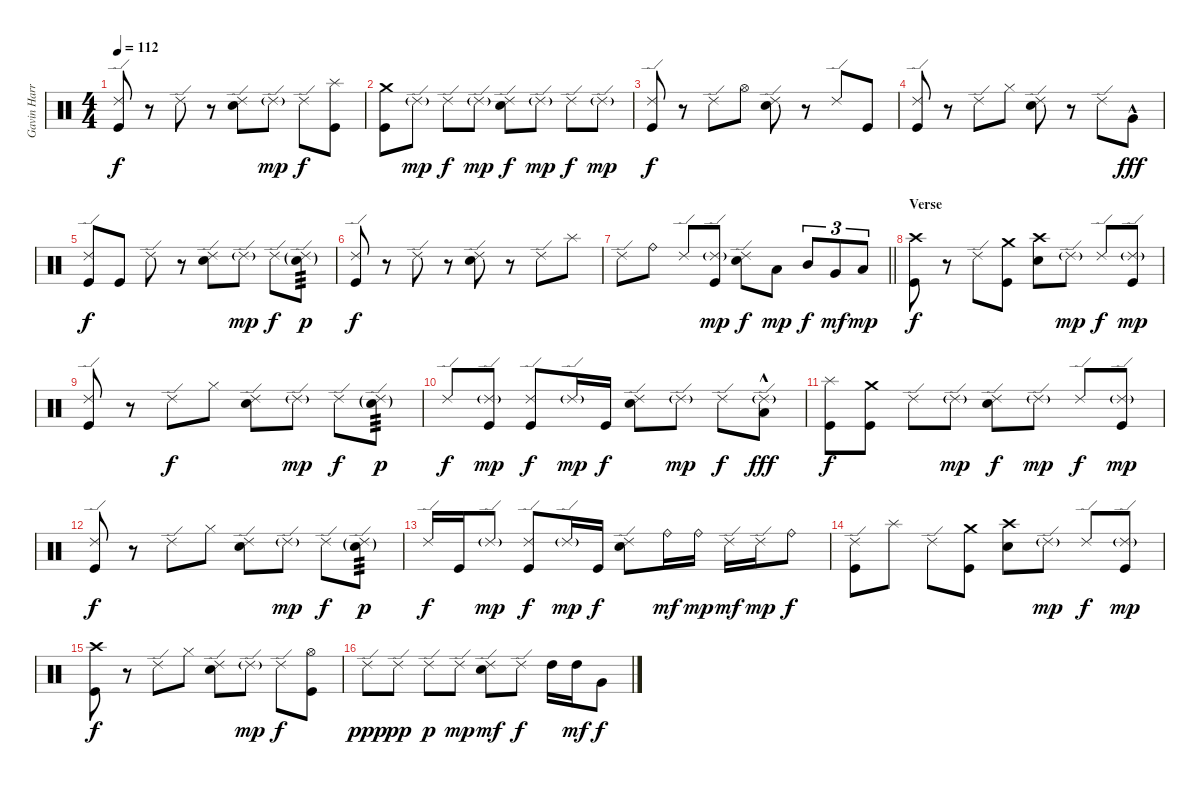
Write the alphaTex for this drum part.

\track ("Gavin Harrison - Drums" "Gavin Harr") {instrument percussion}
\staff {score}
\articulation defaults
\ts (4 4)
\tempo 112
\clef neutral
\ks c
("Ride (edge) 2" "Kick (hit)").8{dy f} r.8 "Ride (edge) 2".8 r.8 ("Ride (edge) 2" "Snare (hit) 2").8 "Ride (edge) 2"{g}.8{dy mp} "Ride (edge) 2".8{dy f} ("Splash (hit)" "Kick (hit)").8 |
("Crash medium (hit)" "Kick (hit)").8 "Ride (edge) 2"{g}.8{dy mp} "Ride (edge) 2".8{dy f} "Ride (edge) 2"{g}.8{dy mp} ("Ride (edge) 2" "Snare (hit) 2").8{dy f} "Ride (edge) 2"{g}.8{dy mp} "Ride (edge) 2".8{dy f} "Ride (edge) 2"{g}.8{dy mp} |
("Ride (edge) 2" "Kick (hit)").8{dy f} r.8 "Ride (edge) 2".8 "Hi-Hat (open)".8 ("Ride (edge) 2" "Snare (hit) 2").8 r.8 "Ride (edge) 2".8 "Kick (hit)".8 |
("Ride (edge) 2" "Kick (hit)").8 r.8 "Ride (edge) 2".8 "Hi-Hat (closed)".8 ("Ride (edge) 2" "Snare (hit) 2").8 r.8 "Ride (edge) 2".8 "Very Low Tom (hit)"{hac}.8{dy fff} |
("Ride (edge) 2" "Kick (hit)").8{dy f} "Kick (hit)".8 "Ride (edge) 2".8 r.8 ("Ride (edge) 2" "Snare (hit) 2").8 "Ride (edge) 2"{g}.8{dy mp} "Ride (edge) 2".8{dy f} ("Ride (edge) 2"{g} "Snare (hit) 2"{g}).8{tp 3 dy p} |
("Ride (edge) 2" "Kick (hit)").8{dy f} r.8 "Ride (edge) 2".8 r.8 ("Ride (edge) 2" "Snare (hit) 2").8 r.8 "Ride (edge) 2".8 "Splash (hit)".8 |
\barLineRight lightlight "Ride (edge) 2".8 "Ride (bell)".8 "Ride (edge) 2".8
("Ride (edge) 2"{g} "Kick (hit)").8{dy mp} ("Ride (edge) 2" "Snare (hit) 2").8{dy f} "Low Tom (hit)".8{dy mp} "Mid Tom (hit)".8{tu (3 2) dy f} "Very Low Tom (hit)".8{tu (3 2) dy mf} "Low Floor Tom (hit)".8{tu (3 2) dy mp} |
\section ("" "Verse")
("Crash high (hit)" "Kick (hit)").8{dy f} r.8 "Ride (edge) 2".8 ("Crash medium (hit)" "Kick (hit)").8 ("Crash high (hit)" "Snare (hit) 2").8 "Ride (edge) 2"{g}.8{dy mp} "Ride (edge) 2".8{dy f} ("Ride (edge) 2"{g} "Kick (hit)").8{dy mp} |
("Ride (edge) 2" "Kick (hit)").8 r.8 "Ride (edge) 2".8{dy f} "Hi-Hat (closed)".8 ("Ride (edge) 2" "Snare (hit) 2").8 "Ride (edge) 2"{g}.8{dy mp} "Ride (edge) 2".8{dy f} ("Ride (edge) 2"{g} "Snare (hit) 2"{g}).8{tp 3 dy p} |
"Ride (edge) 2".8{dy f} ("Ride (edge) 2"{g} "Kick (hit)").8{dy mp} ("Ride (edge) 2" "Kick (hit)").8{dy f} "Ride (edge) 2"{g}.16{dy mp} "Kick (hit)".16{dy f} ("Ride (edge) 2" "Snare (hit) 2").8 "Ride (edge) 2"{g}.8{dy mp} "Ride (edge) 2".8{dy f} ("Ride (edge) 2"{g} "Low Floor Tom (hit)"{hac}).8{dy fff} |
("Splash (hit)" "Kick (hit)").8{dy f} ("Crash medium (hit)" "Kick (hit)").8 "Ride (edge) 2".8 "Ride (edge) 2"{g}.8{dy mp} ("Ride (edge) 2" "Snare (hit) 2").8{dy f} "Ride (edge) 2"{g}.8{dy mp} "Ride (edge) 2".8{dy f} ("Ride (edge) 2"{g} "Kick (hit)").8{dy mp} |
("Ride (edge) 2" "Kick (hit)").8{dy f} r.8 "Ride (edge) 2".8 "Hi-Hat (closed)".8 ("Ride (edge) 2" "Snare (hit) 2").8 "Ride (edge) 2"{g}.8{dy mp} "Ride (edge) 2".8{dy f} ("Ride (edge) 2"{g} "Snare (hit) 2"{g}).8{tp 3 dy p} |
"Ride (edge) 2".16{dy f} "Kick (hit)".16 "Ride (edge) 2"{g}.8{dy mp} ("Ride (edge) 2" "Kick (hit)").8{dy f} "Ride (edge) 2"{g}.16{dy mp} "Kick (hit)".16{dy f} ("Ride (edge) 2" "Snare (hit) 2").8 "Ride (bell)".16{dy mf} "Ride (bell)".16{dy mp} "Ride (edge) 2".16{dy mf} "Ride (edge) 2".16{dy mp} "Ride (bell)".8{dy f} |
("Ride (edge) 2" "Kick (hit)").8 "Splash (hit)".8 "Ride (edge) 2".8 ("Crash medium (hit)" "Kick (hit)").8 ("Crash high (hit)" "Snare (hit) 2").8 "Ride (edge) 2"{g}.8{dy mp} "Ride (edge) 2".8{dy f} ("Ride (edge) 2"{g} "Kick (hit)").8{dy mp} |
("Crash high (hit)" "Kick (hit)").8{dy f} r.8 "Ride (edge) 2".8 "Hi-Hat (closed)".8 ("Ride (edge) 2" "Snare (hit) 2").8 "Ride (edge) 2"{g}.8{dy mp} "Ride (edge) 2".8{dy f} ("Hi-Hat (open)" "Kick (hit)").8 |
"Ride (edge) 2".8{dy ppp} "Ride (edge) 2".8{dy pp} "Ride (edge) 2".8{dy p} "Ride (edge) 2".8{dy mp} ("Ride (edge) 2" "Snare (hit) 2").8{dy mf} "Ride (edge) 2".8{dy f} "High Tom (hit)".16 "High Tom (hit)".16{dy mf} "Very Low Tom (hit)".8{dy f}
